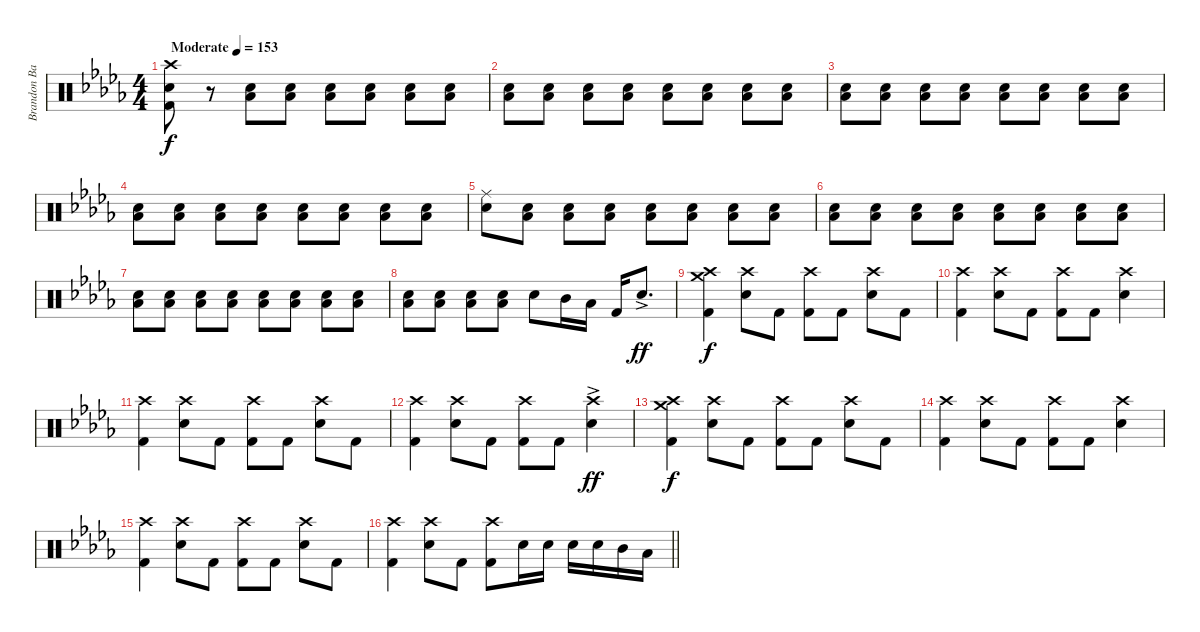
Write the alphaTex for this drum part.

\track ("Brandon Barnes" "Brandon Ba") {instrument percussion}
\staff {score}
\articulation defaults
\ts (4 4)
\tempo (153 "Moderate")
\clef neutral
\ks db
("Crash high (hit)" "Snare (hit) 2" "Kick (hit) 2").8{dy f} r.8 ("Low Floor Tom (hit)" "Snare (hit) 2").8 ("Low Floor Tom (hit)" "Snare (hit) 2").8 ("Low Floor Tom (hit)" "Snare (hit) 2").8 ("Low Floor Tom (hit)" "Snare (hit) 2").8 ("Low Floor Tom (hit)" "Snare (hit) 2").8 ("Low Floor Tom (hit)" "Snare (hit) 2").8 |
("Low Floor Tom (hit)" "Snare (hit) 2").8 ("Low Floor Tom (hit)" "Snare (hit) 2").8 ("Low Floor Tom (hit)" "Snare (hit) 2").8 ("Low Floor Tom (hit)" "Snare (hit) 2").8 ("Low Floor Tom (hit)" "Snare (hit) 2").8 ("Low Floor Tom (hit)" "Snare (hit) 2").8 ("Low Floor Tom (hit)" "Snare (hit) 2").8 ("Low Floor Tom (hit)" "Snare (hit) 2").8 |
("Low Floor Tom (hit)" "Snare (hit) 2").8 ("Low Floor Tom (hit)" "Snare (hit) 2").8 ("Low Floor Tom (hit)" "Snare (hit) 2").8 ("Low Floor Tom (hit)" "Snare (hit) 2").8 ("Low Floor Tom (hit)" "Snare (hit) 2").8 ("Low Floor Tom (hit)" "Snare (hit) 2").8 ("Low Floor Tom (hit)" "Snare (hit) 2").8 ("Low Floor Tom (hit)" "Snare (hit) 2").8 |
("Low Floor Tom (hit)" "Snare (hit) 2").8 ("Low Floor Tom (hit)" "Snare (hit) 2").8 ("Low Floor Tom (hit)" "Snare (hit) 2").8 ("Low Floor Tom (hit)" "Snare (hit) 2").8 ("Low Floor Tom (hit)" "Snare (hit) 2").8 ("Low Floor Tom (hit)" "Snare (hit) 2").8 ("Low Floor Tom (hit)" "Snare (hit) 2").8 ("Low Floor Tom (hit)" "Snare (hit) 2").8 |
("Ride (middle)" "Snare (hit) 2").8 ("Low Floor Tom (hit)" "Snare (hit) 2").8 ("Low Floor Tom (hit)" "Snare (hit) 2").8 ("Low Floor Tom (hit)" "Snare (hit) 2").8 ("Low Floor Tom (hit)" "Snare (hit) 2").8 ("Low Floor Tom (hit)" "Snare (hit) 2").8 ("Low Floor Tom (hit)" "Snare (hit) 2").8 ("Low Floor Tom (hit)" "Snare (hit) 2").8 |
("Low Floor Tom (hit)" "Snare (hit) 2").8 ("Low Floor Tom (hit)" "Snare (hit) 2").8 ("Low Floor Tom (hit)" "Snare (hit) 2").8 ("Low Floor Tom (hit)" "Snare (hit) 2").8 ("Low Floor Tom (hit)" "Snare (hit) 2").8 ("Low Floor Tom (hit)" "Snare (hit) 2").8 ("Low Floor Tom (hit)" "Snare (hit) 2").8 ("Low Floor Tom (hit)" "Snare (hit) 2").8 |
("Low Floor Tom (hit)" "Snare (hit) 2").8 ("Low Floor Tom (hit)" "Snare (hit) 2").8 ("Low Floor Tom (hit)" "Snare (hit) 2").8 ("Low Floor Tom (hit)" "Snare (hit) 2").8 ("Low Floor Tom (hit)" "Snare (hit) 2").8 ("Low Floor Tom (hit)" "Snare (hit) 2").8 ("Low Floor Tom (hit)" "Snare (hit) 2").8 ("Low Floor Tom (hit)" "Snare (hit) 2").8 |
("Low Floor Tom (hit)" "Snare (hit) 2").8 ("Low Floor Tom (hit)" "Snare (hit) 2").8 ("Low Floor Tom (hit)" "Snare (hit) 2").8 ("Low Floor Tom (hit)" "Snare (hit) 2").8 "Snare (hit) 2".8 "Mid Tom (hit)".16 "Low Floor Tom (hit)".16 "Kick (hit) 2".16 "Snare (hit) 2"{ac}.8{d dy ff} |
("Crash high (hit)" "Crash medium (hit)" "Kick (hit) 2").4{dy f} ("Crash high (hit)" "Snare (hit) 2").8 "Kick (hit) 2".8 ("Crash high (hit)" "Kick (hit) 2").8 "Kick (hit) 2".8 ("Crash high (hit)" "Snare (hit) 2").8 "Kick (hit) 2".8 |
("Crash high (hit)" "Kick (hit) 2").4 ("Crash high (hit)" "Snare (hit) 2").8 "Kick (hit) 2".8 ("Crash high (hit)" "Kick (hit) 2").8 "Kick (hit) 2".8 ("Crash high (hit)" "Snare (hit) 2").4 |
("Crash high (hit)" "Kick (hit) 2").4 ("Crash high (hit)" "Snare (hit) 2").8 "Kick (hit) 2".8 ("Crash high (hit)" "Kick (hit) 2").8 "Kick (hit) 2".8 ("Crash high (hit)" "Snare (hit) 2").8 "Kick (hit) 2".8 |
("Crash high (hit)" "Kick (hit) 2").4 ("Crash high (hit)" "Snare (hit) 2").8 "Kick (hit) 2".8 ("Crash high (hit)" "Kick (hit) 2").8 "Kick (hit) 2".8 ("Crash high (hit)"{ac} "Snare (hit) 2").4{dy ff} |
("Crash high (hit)" "Crash medium (hit)" "Kick (hit) 2").4{dy f} ("Crash high (hit)" "Snare (hit) 2").8 "Kick (hit) 2".8 ("Crash high (hit)" "Kick (hit) 2").8 "Kick (hit) 2".8 ("Crash high (hit)" "Snare (hit) 2").8 "Kick (hit) 2".8 |
("Crash high (hit)" "Kick (hit) 2").4 ("Crash high (hit)" "Snare (hit) 2").8 "Kick (hit) 2".8 ("Crash high (hit)" "Kick (hit) 2").8 "Kick (hit) 2".8 ("Crash high (hit)" "Snare (hit) 2").4 |
("Crash high (hit)" "Kick (hit) 2").4 ("Crash high (hit)" "Snare (hit) 2").8 "Kick (hit) 2".8 ("Crash high (hit)" "Kick (hit) 2").8 "Kick (hit) 2".8 ("Crash high (hit)" "Snare (hit) 2").8 "Kick (hit) 2".8 |
\barLineRight lightlight
("Crash high (hit)" "Kick (hit) 2").4 ("Crash high (hit)" "Snare (hit) 2").8 "Kick (hit) 2".8 ("Crash high (hit)" "Kick (hit) 2").8 "Snare (hit) 2".16 "Snare (hit) 2".16 "Snare (hit) 2".16 "Snare (hit) 2".16 "Mid Tom (hit)".16 "Low Floor Tom (hit)".16
